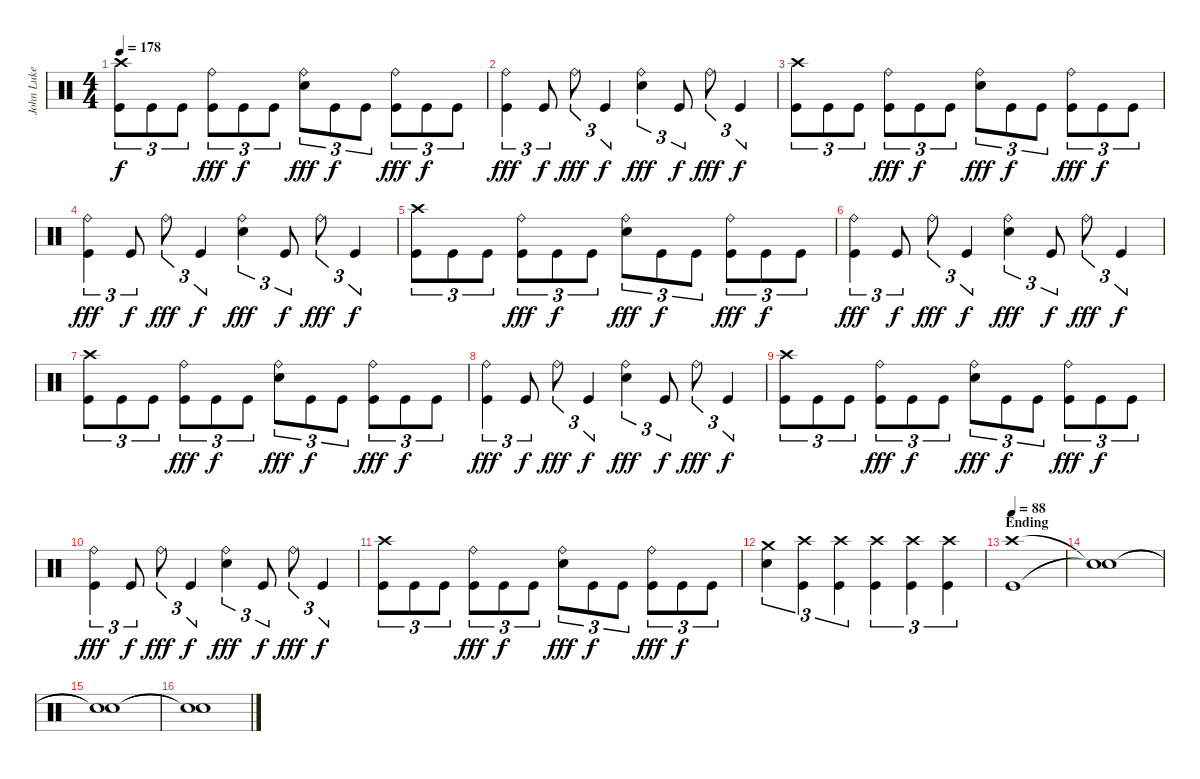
\track ("John Luke (Drums)" "John Luke ") {instrument percussion}
\staff {score}
\articulation defaults
\ts (4 4)
\tempo 178
\clef neutral
\ks c
("Crash high (hit)" "Kick (hit)").8{tu (3 2) dy f} "Kick (hit)".8{tu (3 2)} "Kick (hit)".8{tu (3 2)} ("Ride (bell)" "Kick (hit)").8{tu (3 2) dy fff} "Kick (hit)".8{tu (3 2) dy f} "Kick (hit)".8{tu (3 2)} ("Ride (bell)" "Electric Snare (hit)").8{tu (3 2) dy fff} "Kick (hit)".8{tu (3 2) dy f} "Kick (hit)".8{tu (3 2)} ("Ride (bell)" "Kick (hit)").8{tu (3 2) dy fff} "Kick (hit)".8{tu (3 2) dy f} "Kick (hit)".8{tu (3 2)} |
("Ride (bell)" "Kick (hit)").4{tu (3 2) dy fff} "Kick (hit)".8{tu (3 2) dy f} "Ride (bell)".8{tu (3 2) dy fff} "Kick (hit)".4{tu (3 2) dy f} ("Ride (bell)" "Electric Snare (hit)").4{tu (3 2) dy fff} "Kick (hit)".8{tu (3 2) dy f} "Ride (bell)".8{tu (3 2) dy fff} "Kick (hit)".4{tu (3 2) dy f} |
("Crash high (hit)" "Kick (hit)").8{tu (3 2)} "Kick (hit)".8{tu (3 2)} "Kick (hit)".8{tu (3 2)} ("Ride (bell)" "Kick (hit)").8{tu (3 2) dy fff} "Kick (hit)".8{tu (3 2) dy f} "Kick (hit)".8{tu (3 2)} ("Ride (bell)" "Electric Snare (hit)").8{tu (3 2) dy fff} "Kick (hit)".8{tu (3 2) dy f} "Kick (hit)".8{tu (3 2)} ("Ride (bell)" "Kick (hit)").8{tu (3 2) dy fff} "Kick (hit)".8{tu (3 2) dy f} "Kick (hit)".8{tu (3 2)} |
("Ride (bell)" "Kick (hit)").4{tu (3 2) dy fff} "Kick (hit)".8{tu (3 2) dy f} "Ride (bell)".8{tu (3 2) dy fff} "Kick (hit)".4{tu (3 2) dy f} ("Ride (bell)" "Electric Snare (hit)").4{tu (3 2) dy fff} "Kick (hit)".8{tu (3 2) dy f} "Ride (bell)".8{tu (3 2) dy fff} "Kick (hit)".4{tu (3 2) dy f} |
("Crash high (hit)" "Kick (hit)").8{tu (3 2)} "Kick (hit)".8{tu (3 2)} "Kick (hit)".8{tu (3 2)} ("Ride (bell)" "Kick (hit)").8{tu (3 2) dy fff} "Kick (hit)".8{tu (3 2) dy f} "Kick (hit)".8{tu (3 2)} ("Ride (bell)" "Electric Snare (hit)").8{tu (3 2) dy fff} "Kick (hit)".8{tu (3 2) dy f} "Kick (hit)".8{tu (3 2)} ("Ride (bell)" "Kick (hit)").8{tu (3 2) dy fff} "Kick (hit)".8{tu (3 2) dy f} "Kick (hit)".8{tu (3 2)} |
("Ride (bell)" "Kick (hit)").4{tu (3 2) dy fff} "Kick (hit)".8{tu (3 2) dy f} "Ride (bell)".8{tu (3 2) dy fff} "Kick (hit)".4{tu (3 2) dy f} ("Ride (bell)" "Electric Snare (hit)").4{tu (3 2) dy fff} "Kick (hit)".8{tu (3 2) dy f} "Ride (bell)".8{tu (3 2) dy fff} "Kick (hit)".4{tu (3 2) dy f} |
("Crash high (hit)" "Kick (hit)").8{tu (3 2)} "Kick (hit)".8{tu (3 2)} "Kick (hit)".8{tu (3 2)} ("Ride (bell)" "Kick (hit)").8{tu (3 2) dy fff} "Kick (hit)".8{tu (3 2) dy f} "Kick (hit)".8{tu (3 2)} ("Ride (bell)" "Electric Snare (hit)").8{tu (3 2) dy fff} "Kick (hit)".8{tu (3 2) dy f} "Kick (hit)".8{tu (3 2)} ("Ride (bell)" "Kick (hit)").8{tu (3 2) dy fff} "Kick (hit)".8{tu (3 2) dy f} "Kick (hit)".8{tu (3 2)} |
("Ride (bell)" "Kick (hit)").4{tu (3 2) dy fff} "Kick (hit)".8{tu (3 2) dy f} "Ride (bell)".8{tu (3 2) dy fff} "Kick (hit)".4{tu (3 2) dy f} ("Ride (bell)" "Electric Snare (hit)").4{tu (3 2) dy fff} "Kick (hit)".8{tu (3 2) dy f} "Ride (bell)".8{tu (3 2) dy fff} "Kick (hit)".4{tu (3 2) dy f} |
("Crash high (hit)" "Kick (hit)").8{tu (3 2)} "Kick (hit)".8{tu (3 2)} "Kick (hit)".8{tu (3 2)} ("Ride (bell)" "Kick (hit)").8{tu (3 2) dy fff} "Kick (hit)".8{tu (3 2) dy f} "Kick (hit)".8{tu (3 2)} ("Ride (bell)" "Electric Snare (hit)").8{tu (3 2) dy fff} "Kick (hit)".8{tu (3 2) dy f} "Kick (hit)".8{tu (3 2)} ("Ride (bell)" "Kick (hit)").8{tu (3 2) dy fff} "Kick (hit)".8{tu (3 2) dy f} "Kick (hit)".8{tu (3 2)} |
("Ride (bell)" "Kick (hit)").4{tu (3 2) dy fff} "Kick (hit)".8{tu (3 2) dy f} "Ride (bell)".8{tu (3 2) dy fff} "Kick (hit)".4{tu (3 2) dy f} ("Ride (bell)" "Electric Snare (hit)").4{tu (3 2) dy fff} "Kick (hit)".8{tu (3 2) dy f} "Ride (bell)".8{tu (3 2) dy fff} "Kick (hit)".4{tu (3 2) dy f} |
("Crash high (hit)" "Kick (hit)").8{tu (3 2)} "Kick (hit)".8{tu (3 2)} "Kick (hit)".8{tu (3 2)} ("Ride (bell)" "Kick (hit)").8{tu (3 2) dy fff} "Kick (hit)".8{tu (3 2) dy f} "Kick (hit)".8{tu (3 2)} ("Ride (bell)" "Electric Snare (hit)").8{tu (3 2) dy fff} "Kick (hit)".8{tu (3 2) dy f} "Kick (hit)".8{tu (3 2)} ("Ride (bell)" "Kick (hit)").8{tu (3 2) dy fff} "Kick (hit)".8{tu (3 2) dy f} "Kick (hit)".8{tu (3 2)} |
("Crash medium (hit)" "Electric Snare (hit)").4{tu (3 2)} ("Crash high (hit)" "Kick (hit)").4{tu (3 2)} ("Crash high (hit)" "Kick (hit)").4{tu (3 2)} ("Crash high (hit)" "Kick (hit)").4{tu (3 2)} ("Crash high (hit)" "Kick (hit)").4{tu (3 2)} ("Crash high (hit)" "Kick (hit)").4{tu (3 2)} |
\section ("" "Ending")
\tempo 88
("Crash high (hit)" "Kick (hit)").1 |
("Snare (hit)"{t} "Snare (hit)"{t}).1 |
("Snare (hit)"{t} "Snare (hit)"{t}).1 |
("Snare (hit)"{t} "Snare (hit)"{t}).1
